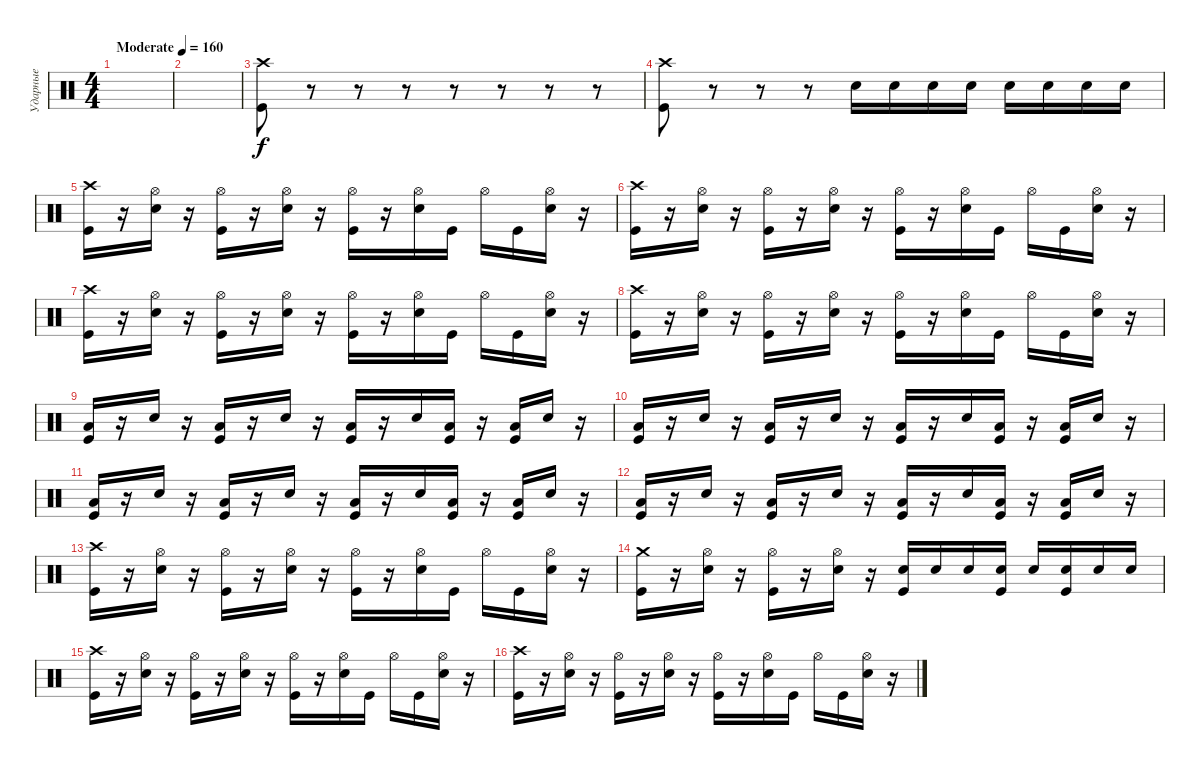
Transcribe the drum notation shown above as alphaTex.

\track ("Ударные" "Ударные") {instrument percussion}
\staff {score}
\articulation defaults
\ts (4 4)
\tempo (160 "Moderate")
\clef neutral
\ks c
|
|
("Kick (hit)" "Crash high (hit)").8 r.8 r.8 r.8 r.8 r.8 r.8 r.8 |
("Kick (hit)" "Crash high (hit)").8 r.8 r.8 r.8 "Snare (hit) 2".16 "Snare (hit) 2".16 "Snare (hit) 2".16 "Snare (hit) 2".16 "Snare (hit) 2".16 "Snare (hit) 2".16 "Snare (hit) 2".16 "Snare (hit) 2".16 |
("Kick (hit)" "Crash high (hit)").16 r.16 ("Snare (hit) 2" "Hi-Hat (open)").16 r.16 ("Kick (hit)" "Hi-Hat (open)").16 r.16 ("Snare (hit) 2" "Hi-Hat (open)").16 r.16 ("Kick (hit)" "Hi-Hat (open)").16 r.16 ("Snare (hit) 2" "Hi-Hat (open)").16 "Kick (hit)".16 "Hi-Hat (open)".16 "Kick (hit)".16 ("Snare (hit) 2" "Hi-Hat (open)").16 r.16 |
("Kick (hit)" "Crash high (hit)").16 r.16 ("Snare (hit) 2" "Hi-Hat (open)").16 r.16 ("Kick (hit)" "Hi-Hat (open)").16 r.16 ("Snare (hit) 2" "Hi-Hat (open)").16 r.16 ("Kick (hit)" "Hi-Hat (open)").16 r.16 ("Snare (hit) 2" "Hi-Hat (open)").16 "Kick (hit)".16 "Hi-Hat (open)".16 "Kick (hit)".16 ("Snare (hit) 2" "Hi-Hat (open)").16 r.16 |
("Kick (hit)" "Crash high (hit)").16 r.16 ("Snare (hit) 2" "Hi-Hat (open)").16 r.16 ("Kick (hit)" "Hi-Hat (open)").16 r.16 ("Snare (hit) 2" "Hi-Hat (open)").16 r.16 ("Kick (hit)" "Hi-Hat (open)").16 r.16 ("Snare (hit) 2" "Hi-Hat (open)").16 "Kick (hit)".16 "Hi-Hat (open)".16 "Kick (hit)".16 ("Snare (hit) 2" "Hi-Hat (open)").16 r.16 |
("Kick (hit)" "Crash high (hit)").16 r.16 ("Snare (hit) 2" "Hi-Hat (open)").16 r.16 ("Kick (hit)" "Hi-Hat (open)").16 r.16 ("Snare (hit) 2" "Hi-Hat (open)").16 r.16 ("Kick (hit)" "Hi-Hat (open)").16 r.16 ("Snare (hit) 2" "Hi-Hat (open)").16 "Kick (hit)".16 "Hi-Hat (open)".16 "Kick (hit)".16 ("Snare (hit) 2" "Hi-Hat (open)").16 r.16 |
("Kick (hit)" "Low Floor Tom (hit)").16 r.16 "Snare (hit) 2".16 r.16 ("Kick (hit)" "Low Floor Tom (hit)").16 r.16 "Snare (hit) 2".16 r.16 ("Kick (hit)" "Low Floor Tom (hit)").16 r.16 "Snare (hit) 2".16 ("Kick (hit)" "Low Floor Tom (hit)").16 r.16 ("Kick (hit)" "Low Floor Tom (hit)").16 "Snare (hit) 2".16 r.16 |
("Kick (hit)" "Low Floor Tom (hit)").16 r.16 "Snare (hit) 2".16 r.16 ("Kick (hit)" "Low Floor Tom (hit)").16 r.16 "Snare (hit) 2".16 r.16 ("Kick (hit)" "Low Floor Tom (hit)").16 r.16 "Snare (hit) 2".16 ("Kick (hit)" "Low Floor Tom (hit)").16 r.16 ("Kick (hit)" "Low Floor Tom (hit)").16 "Snare (hit) 2".16 r.16 |
("Kick (hit)" "Low Floor Tom (hit)").16 r.16 "Snare (hit) 2".16 r.16 ("Kick (hit)" "Low Floor Tom (hit)").16 r.16 "Snare (hit) 2".16 r.16 ("Kick (hit)" "Low Floor Tom (hit)").16 r.16 "Snare (hit) 2".16 ("Kick (hit)" "Low Floor Tom (hit)").16 r.16 ("Kick (hit)" "Low Floor Tom (hit)").16 "Snare (hit) 2".16 r.16 |
("Kick (hit)" "Low Floor Tom (hit)").16 r.16 "Snare (hit) 2".16 r.16 ("Kick (hit)" "Low Floor Tom (hit)").16 r.16 "Snare (hit) 2".16 r.16 ("Kick (hit)" "Low Floor Tom (hit)").16 r.16 "Snare (hit) 2".16 ("Kick (hit)" "Low Floor Tom (hit)").16 r.16 ("Kick (hit)" "Low Floor Tom (hit)").16 "Snare (hit) 2".16 r.16 |
("Kick (hit)" "Crash high (hit)").16 r.16 ("Snare (hit) 2" "Hi-Hat (open)").16 r.16 ("Kick (hit)" "Hi-Hat (open)").16 r.16 ("Snare (hit) 2" "Hi-Hat (open)").16 r.16 ("Kick (hit)" "Hi-Hat (open)").16 r.16 ("Snare (hit) 2" "Hi-Hat (open)").16 "Kick (hit)".16 "Hi-Hat (open)".16 "Kick (hit)".16 ("Snare (hit) 2" "Hi-Hat (open)").16 r.16 |
("Kick (hit)" "Crash medium (hit)").16 r.16 ("Snare (hit) 2" "Hi-Hat (open)").16 r.16 ("Kick (hit)" "Hi-Hat (open)").16 r.16 ("Snare (hit) 2" "Hi-Hat (open)").16 r.16 ("Kick (hit)" "Snare (hit) 2").16 "Snare (hit) 2".16 "Snare (hit) 2".16 ("Kick (hit)" "Snare (hit) 2").16 "Snare (hit) 2".16 ("Kick (hit)" "Snare (hit) 2").16 "Snare (hit) 2".16 "Snare (hit) 2".16 |
("Kick (hit)" "Crash high (hit)").16 r.16 ("Snare (hit) 2" "Hi-Hat (open)").16 r.16 ("Kick (hit)" "Hi-Hat (open)").16 r.16 ("Snare (hit) 2" "Hi-Hat (open)").16 r.16 ("Kick (hit)" "Hi-Hat (open)").16 r.16 ("Snare (hit) 2" "Hi-Hat (open)").16 "Kick (hit)".16 "Hi-Hat (open)".16 "Kick (hit)".16 ("Snare (hit) 2" "Hi-Hat (open)").16 r.16 |
("Kick (hit)" "Crash high (hit)").16 r.16 ("Snare (hit) 2" "Hi-Hat (open)").16 r.16 ("Kick (hit)" "Hi-Hat (open)").16 r.16 ("Snare (hit) 2" "Hi-Hat (open)").16 r.16 ("Kick (hit)" "Hi-Hat (open)").16 r.16 ("Snare (hit) 2" "Hi-Hat (open)").16 "Kick (hit)".16 "Hi-Hat (open)".16 "Kick (hit)".16 ("Snare (hit) 2" "Hi-Hat (open)").16 r.16
